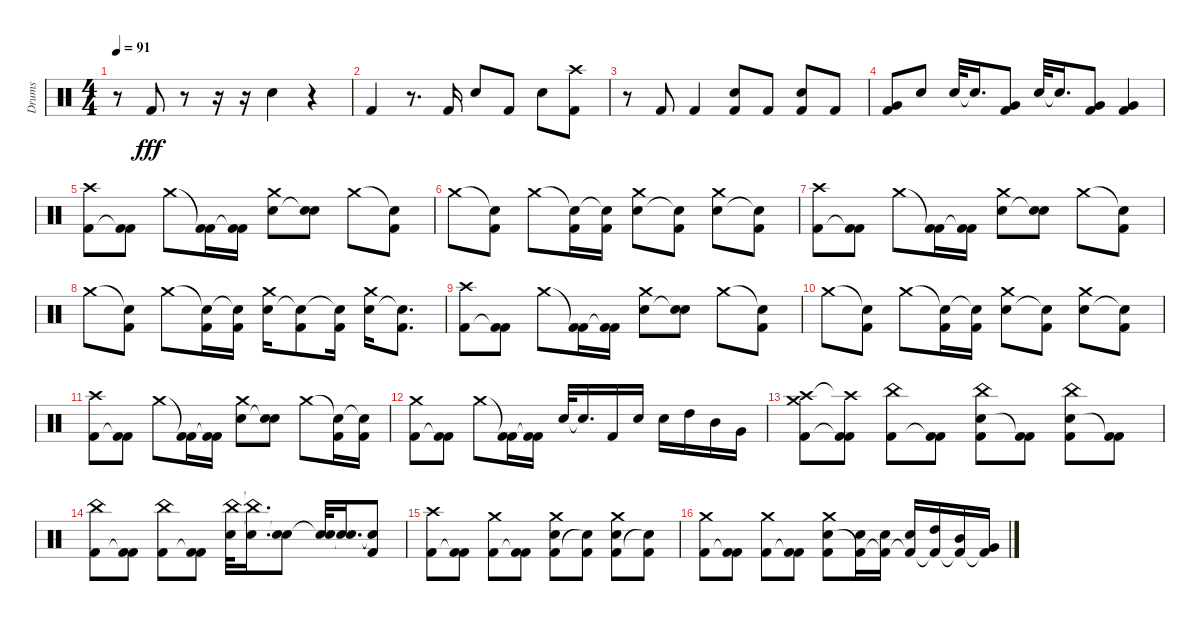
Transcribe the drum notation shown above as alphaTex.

\track ("Drums" "Drums") {instrument percussion}
\staff {score}
\articulation defaults
\ts (4 4)
\tempo 91
\clef neutral
\ks c
r.8{dy fff} "Kick (hit) 2".8 r.8 r.16 r.16 "Snare (hit) 2".4 r.4 |
"Kick (hit) 2".4 r.8{d} "Kick (hit) 2".16 "Snare (hit) 2".8 "Kick (hit) 2".8 "Snare (hit) 2".8 ("Kick (hit) 2" "Crash high (hit)").8 |
r.8 "Kick (hit) 2".8 "Kick (hit) 2".4 ("Kick (hit) 2" "Snare (hit) 2").8 "Kick (hit) 2".8 ("Kick (hit) 2" "Snare (hit) 2").8 "Kick (hit) 2".8 |
("Kick (hit) 2" "Very Low Tom (hit)").8 "Snare (hit) 2".8 "Snare (hit) 2".32 "Snare (hit) 2"{t}.16{d} ("Kick (hit) 2" "Very Low Tom (hit)").8 "Snare (hit) 2".32 "Snare (hit) 2"{t}.16{d} ("Kick (hit) 2" "Very Low Tom (hit)").8 ("Kick (hit) 2" "Very Low Tom (hit)").4 |
("Kick (hit) 2" "Crash high (hit)").8 ("Kick (hit) 2"{t} "Kick (hit) 2").8 "Crash medium (hit)".8 ("Kick (hit) 2"{t} "Kick (hit) 2").16 ("Kick (hit) 2"{t} "Kick (hit) 2").16 ("Snare (hit) 2" "Crash medium (hit)").8 ("Snare (hit) 2"{t} "Snare (hit) 2").8 "Crash medium (hit)".8 ("Snare (hit) 2"{t} "Kick (hit) 2").8 |
"Crash medium (hit)".8 ("Snare (hit) 2"{t} "Kick (hit) 2").8 "Crash medium (hit)".8 ("Snare (hit) 2"{t} "Kick (hit) 2").16 ("Snare (hit) 2"{t} "Kick (hit) 2").16 ("Snare (hit) 2" "Crash medium (hit)").8 ("Snare (hit) 2"{t} "Kick (hit) 2").8 ("Snare (hit) 2" "Crash medium (hit)").8 ("Snare (hit) 2"{t} "Kick (hit) 2").8 |
("Kick (hit) 2" "Crash high (hit)").8 ("Kick (hit) 2"{t} "Kick (hit) 2").8 "Crash medium (hit)".8 ("Kick (hit) 2"{t} "Kick (hit) 2").16 ("Kick (hit) 2"{t} "Kick (hit) 2").16 ("Snare (hit) 2" "Crash medium (hit)").8 ("Snare (hit) 2"{t} "Snare (hit) 2").8 "Crash medium (hit)".8 ("Snare (hit) 2"{t} "Kick (hit) 2").8 |
"Crash medium (hit)".8 ("Snare (hit) 2"{t} "Kick (hit) 2").8 "Crash medium (hit)".8 ("Snare (hit) 2"{t} "Kick (hit) 2").16 ("Snare (hit) 2"{t} "Kick (hit) 2").16 ("Snare (hit) 2" "Crash medium (hit)").16 ("Snare (hit) 2"{t} "Kick (hit) 2").8 ("Snare (hit) 2"{t} "Kick (hit) 2").16 ("Snare (hit) 2" "Crash medium (hit)").16 ("Snare (hit) 2"{t} "Kick (hit) 2").8{d} |
("Kick (hit) 2" "Crash high (hit)").8 ("Kick (hit) 2"{t} "Kick (hit) 2").8 "Crash medium (hit)".8 ("Kick (hit) 2"{t} "Kick (hit) 2").16 ("Kick (hit) 2"{t} "Kick (hit) 2").16 ("Snare (hit) 2" "Crash medium (hit)").8 ("Snare (hit) 2"{t} "Snare (hit) 2").8 "Crash medium (hit)".8 ("Snare (hit) 2"{t} "Kick (hit) 2").8 |
"Crash medium (hit)".8 ("Snare (hit) 2"{t} "Kick (hit) 2").8 "Crash medium (hit)".8 ("Snare (hit) 2"{t} "Kick (hit) 2").16 ("Snare (hit) 2"{t} "Kick (hit) 2").16 ("Snare (hit) 2" "Crash medium (hit)").8 ("Snare (hit) 2"{t} "Kick (hit) 2").8 ("Snare (hit) 2" "Crash medium (hit)").8 ("Snare (hit) 2"{t} "Kick (hit) 2").8 |
("Kick (hit) 2" "Crash high (hit)").8 ("Kick (hit) 2"{t} "Kick (hit) 2").8 "Crash medium (hit)".8 ("Kick (hit) 2"{t} "Kick (hit) 2").16 ("Kick (hit) 2"{t} "Kick (hit) 2").16 ("Snare (hit) 2" "Crash medium (hit)").8 ("Snare (hit) 2"{t} "Snare (hit) 2").8 "Crash medium (hit)".8 ("Snare (hit) 2"{t} "Kick (hit) 2").16 ("Snare (hit) 2"{t} "Kick (hit) 2").16 |
("Kick (hit) 2" "Crash medium (hit)").8 ("Kick (hit) 2"{t} "Kick (hit) 2").8 "Crash medium (hit)".8 ("Kick (hit) 2"{t} "Kick (hit) 2").16 ("Kick (hit) 2"{t} "Kick (hit) 2").16 "Snare (hit) 2".32 "Snare (hit) 2"{t}.16{d} "Kick (hit) 2".16 "Snare (hit) 2".16 "Snare (hit) 2".16 "High Tom (hit)".16 "Mid Tom (hit)".16 "Very Low Tom (hit)".16 |
("Kick (hit) 2" "Crash high (hit)" "Crash medium (hit)").8 ("Kick (hit) 2"{t} "Crash high (hit)"{t} "Kick (hit) 2").8 ("Kick (hit) 2" "China (hit)").8 ("Kick (hit) 2"{t} "Kick (hit) 2").8 ("Snare (hit) 2" "Kick (hit) 2" "China (hit)").8 ("Kick (hit) 2"{t} "Kick (hit) 2").8 ("Snare (hit) 2" "Kick (hit) 2" "China (hit)").8 ("Kick (hit) 2"{t} "Kick (hit) 2").8 |
("Kick (hit) 2" "China (hit)").8 ("Kick (hit) 2"{t} "Kick (hit) 2").8 ("Kick (hit) 2" "China (hit)").8 ("Kick (hit) 2"{t} "Kick (hit) 2").8 ("Snare (hit) 2" "China (hit)").32 ("Snare (hit) 2"{t} "China (hit)"{t}).16{d} ("Snare (hit) 2"{t} "Snare (hit) 2").8 ("Snare (hit) 2"{t} "Snare (hit) 2").32 ("Snare (hit) 2"{t} "Snare (hit) 2"{t}).16{d} ("Snare (hit) 2"{t} "Kick (hit) 2").8 |
("Kick (hit) 2" "Crash high (hit)").8 ("Kick (hit) 2"{t} "Kick (hit) 2").8 ("Kick (hit) 2" "Crash medium (hit)").8 ("Kick (hit) 2"{t} "Kick (hit) 2").8 ("Kick (hit) 2" "Snare (hit) 2" "Crash medium (hit)").8 ("Snare (hit) 2"{t} "Kick (hit) 2").8 ("Kick (hit) 2" "Snare (hit) 2" "Crash medium (hit)").8 ("Snare (hit) 2"{t} "Kick (hit) 2").8 |
("Kick (hit) 2" "Crash medium (hit)").8 ("Kick (hit) 2"{t} "Kick (hit) 2").8 ("Kick (hit) 2" "Crash medium (hit)").8 ("Kick (hit) 2"{t} "Kick (hit) 2").8 ("Snare (hit) 2" "Kick (hit) 2" "Crash medium (hit)").8 ("Kick (hit) 2"{t} "Snare (hit) 2").16 ("Kick (hit) 2"{t} "Snare (hit) 2").16 ("Kick (hit) 2"{t} "Snare (hit) 2").16 ("Kick (hit) 2"{t} "High Tom (hit)").16 ("Kick (hit) 2"{t} "Mid Tom (hit)").16 ("Kick (hit) 2"{t} "Very Low Tom (hit)").16
